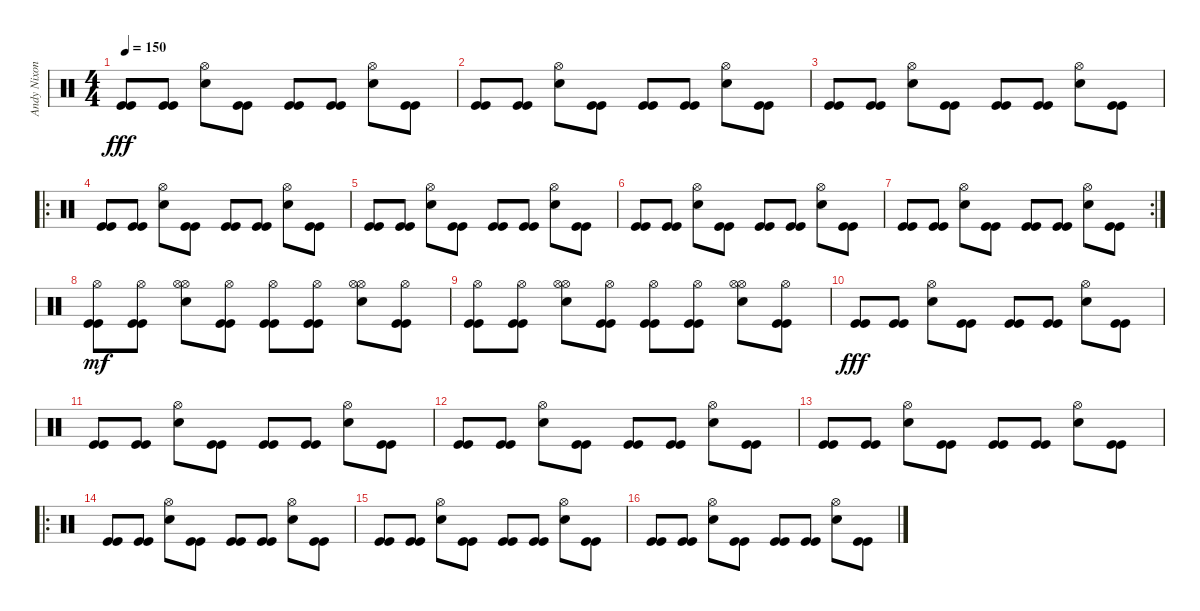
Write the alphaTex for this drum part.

\track ("Andy Nixon (drums)" "Andy Nixon") {instrument percussion}
\staff {score}
\articulation defaults
\ts (4 4)
\tempo 150
\clef neutral
\ks c
("Kick (hit)" "Kick (hit)").8{dy fff} ("Kick (hit)" "Kick (hit)").8 ("Snare (hit) 2" "Hi-Hat (open)").8 ("Kick (hit)" "Kick (hit)").8 ("Kick (hit)" "Kick (hit)").8 ("Kick (hit)" "Kick (hit)").8 ("Snare (hit) 2" "Hi-Hat (open)").8 ("Kick (hit)" "Kick (hit)").8 |
("Kick (hit)" "Kick (hit)").8 ("Kick (hit)" "Kick (hit)").8 ("Snare (hit) 2" "Hi-Hat (open)").8 ("Kick (hit)" "Kick (hit)").8 ("Kick (hit)" "Kick (hit)").8 ("Kick (hit)" "Kick (hit)").8 ("Snare (hit) 2" "Hi-Hat (open)").8 ("Kick (hit)" "Kick (hit)").8 |
("Kick (hit)" "Kick (hit)").8 ("Kick (hit)" "Kick (hit)").8 ("Snare (hit) 2" "Hi-Hat (open)").8 ("Kick (hit)" "Kick (hit)").8 ("Kick (hit)" "Kick (hit)").8 ("Kick (hit)" "Kick (hit)").8 ("Snare (hit) 2" "Hi-Hat (open)").8 ("Kick (hit)" "Kick (hit)").8 |
\ro
("Kick (hit)" "Kick (hit)").8 ("Kick (hit)" "Kick (hit)").8 ("Snare (hit) 2" "Hi-Hat (open)").8 ("Kick (hit)" "Kick (hit)").8 ("Kick (hit)" "Kick (hit)").8 ("Kick (hit)" "Kick (hit)").8 ("Snare (hit) 2" "Hi-Hat (open)").8 ("Kick (hit)" "Kick (hit)").8 |
("Kick (hit)" "Kick (hit)").8 ("Kick (hit)" "Kick (hit)").8 ("Snare (hit) 2" "Hi-Hat (open)").8 ("Kick (hit)" "Kick (hit)").8 ("Kick (hit)" "Kick (hit)").8 ("Kick (hit)" "Kick (hit)").8 ("Snare (hit) 2" "Hi-Hat (open)").8 ("Kick (hit)" "Kick (hit)").8 |
("Kick (hit)" "Kick (hit)").8 ("Kick (hit)" "Kick (hit)").8 ("Snare (hit) 2" "Hi-Hat (open)").8 ("Kick (hit)" "Kick (hit)").8 ("Kick (hit)" "Kick (hit)").8 ("Kick (hit)" "Kick (hit)").8 ("Snare (hit) 2" "Hi-Hat (open)").8 ("Kick (hit)" "Kick (hit)").8 |
\rc 2
("Kick (hit)" "Kick (hit)").8 ("Kick (hit)" "Kick (hit)").8 ("Snare (hit) 2" "Hi-Hat (open)").8 ("Kick (hit)" "Kick (hit)").8 ("Kick (hit)" "Kick (hit)").8 ("Kick (hit)" "Kick (hit)").8 ("Snare (hit) 2" "Hi-Hat (open)").8 ("Kick (hit)" "Kick (hit)").8 |
("Kick (hit)" "Kick (hit)" "Hi-Hat (open)").8{dy mf} ("Kick (hit)" "Kick (hit)" "Hi-Hat (open)").8 ("Snare (hit) 2" "Hi-Hat (open)" "Hi-Hat (open)").8 ("Kick (hit)" "Kick (hit)" "Hi-Hat (open)").8 ("Kick (hit)" "Kick (hit)" "Hi-Hat (open)").8 ("Kick (hit)" "Kick (hit)" "Hi-Hat (open)").8 ("Snare (hit) 2" "Hi-Hat (open)" "Hi-Hat (open)").8 ("Kick (hit)" "Kick (hit)" "Hi-Hat (open)").8 |
("Kick (hit)" "Kick (hit)" "Hi-Hat (open)").8 ("Kick (hit)" "Kick (hit)" "Hi-Hat (open)").8 ("Snare (hit) 2" "Hi-Hat (open)" "Hi-Hat (open)").8 ("Kick (hit)" "Kick (hit)" "Hi-Hat (open)").8 ("Kick (hit)" "Kick (hit)" "Hi-Hat (open)").8 ("Kick (hit)" "Kick (hit)" "Hi-Hat (open)").8 ("Snare (hit) 2" "Hi-Hat (open)" "Hi-Hat (open)").8 ("Kick (hit)" "Kick (hit)" "Hi-Hat (open)").8 |
("Kick (hit)" "Kick (hit)").8{dy fff} ("Kick (hit)" "Kick (hit)").8 ("Snare (hit) 2" "Hi-Hat (open)").8 ("Kick (hit)" "Kick (hit)").8 ("Kick (hit)" "Kick (hit)").8 ("Kick (hit)" "Kick (hit)").8 ("Snare (hit) 2" "Hi-Hat (open)").8 ("Kick (hit)" "Kick (hit)").8 |
("Kick (hit)" "Kick (hit)").8 ("Kick (hit)" "Kick (hit)").8 ("Snare (hit) 2" "Hi-Hat (open)").8 ("Kick (hit)" "Kick (hit)").8 ("Kick (hit)" "Kick (hit)").8 ("Kick (hit)" "Kick (hit)").8 ("Snare (hit) 2" "Hi-Hat (open)").8 ("Kick (hit)" "Kick (hit)").8 |
("Kick (hit)" "Kick (hit)").8 ("Kick (hit)" "Kick (hit)").8 ("Snare (hit) 2" "Hi-Hat (open)").8 ("Kick (hit)" "Kick (hit)").8 ("Kick (hit)" "Kick (hit)").8 ("Kick (hit)" "Kick (hit)").8 ("Snare (hit) 2" "Hi-Hat (open)").8 ("Kick (hit)" "Kick (hit)").8 |
("Kick (hit)" "Kick (hit)").8 ("Kick (hit)" "Kick (hit)").8 ("Snare (hit) 2" "Hi-Hat (open)").8 ("Kick (hit)" "Kick (hit)").8 ("Kick (hit)" "Kick (hit)").8 ("Kick (hit)" "Kick (hit)").8 ("Snare (hit) 2" "Hi-Hat (open)").8 ("Kick (hit)" "Kick (hit)").8 |
\ro
("Kick (hit)" "Kick (hit)").8 ("Kick (hit)" "Kick (hit)").8 ("Snare (hit) 2" "Hi-Hat (open)").8 ("Kick (hit)" "Kick (hit)").8 ("Kick (hit)" "Kick (hit)").8 ("Kick (hit)" "Kick (hit)").8 ("Snare (hit) 2" "Hi-Hat (open)").8 ("Kick (hit)" "Kick (hit)").8 |
("Kick (hit)" "Kick (hit)").8 ("Kick (hit)" "Kick (hit)").8 ("Snare (hit) 2" "Hi-Hat (open)").8 ("Kick (hit)" "Kick (hit)").8 ("Kick (hit)" "Kick (hit)").8 ("Kick (hit)" "Kick (hit)").8 ("Snare (hit) 2" "Hi-Hat (open)").8 ("Kick (hit)" "Kick (hit)").8 |
("Kick (hit)" "Kick (hit)").8 ("Kick (hit)" "Kick (hit)").8 ("Snare (hit) 2" "Hi-Hat (open)").8 ("Kick (hit)" "Kick (hit)").8 ("Kick (hit)" "Kick (hit)").8 ("Kick (hit)" "Kick (hit)").8 ("Snare (hit) 2" "Hi-Hat (open)").8 ("Kick (hit)" "Kick (hit)").8
